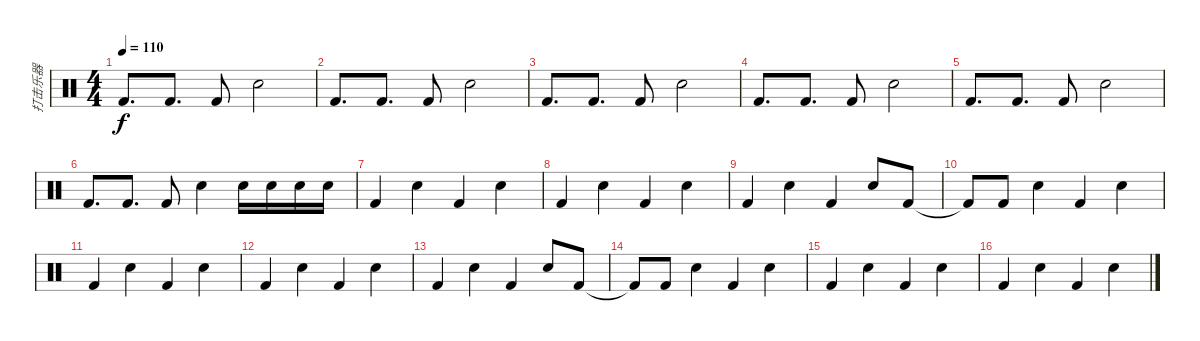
\track ("打击乐器" "打击乐器") {instrument percussion}
\staff {score}
\articulation defaults
\ts (4 4)
\tempo 110
\clef neutral
\ks c "Kick (hit) 2".8{d dy f} "Kick (hit) 2".8{d} "Kick (hit) 2".8 "Snare (hit) 2".2
|
"Kick (hit) 2".8{d} "Kick (hit) 2".8{d} "Kick (hit) 2".8 "Snare (hit) 2".2 |
"Kick (hit) 2".8{d} "Kick (hit) 2".8{d} "Kick (hit) 2".8 "Snare (hit) 2".2 |
"Kick (hit) 2".8{d} "Kick (hit) 2".8{d} "Kick (hit) 2".8 "Snare (hit) 2".2 |
"Kick (hit) 2".8{d} "Kick (hit) 2".8{d} "Kick (hit) 2".8 "Snare (hit) 2".2 |
"Kick (hit) 2".8{d} "Kick (hit) 2".8{d} "Kick (hit) 2".8 "Snare (hit) 2".4 "Snare (hit) 2".16 "Snare (hit) 2".16 "Snare (hit) 2".16 "Snare (hit) 2".16 |
"Kick (hit) 2".4 "Snare (hit) 2".4 "Kick (hit) 2".4 "Snare (hit) 2".4 |
"Kick (hit) 2".4 "Snare (hit) 2".4 "Kick (hit) 2".4 "Snare (hit) 2".4 |
"Kick (hit) 2".4 "Snare (hit) 2".4 "Kick (hit) 2".4 "Snare (hit) 2".8 "Kick (hit) 2".8 |
"Kick (hit) 2"{t}.8 "Kick (hit) 2".8 "Snare (hit) 2".4 "Kick (hit) 2".4 "Snare (hit) 2".4 |
"Kick (hit) 2".4 "Snare (hit) 2".4 "Kick (hit) 2".4 "Snare (hit) 2".4 |
"Kick (hit) 2".4 "Snare (hit) 2".4 "Kick (hit) 2".4 "Snare (hit) 2".4 |
"Kick (hit) 2".4 "Snare (hit) 2".4 "Kick (hit) 2".4 "Snare (hit) 2".8 "Kick (hit) 2".8 |
"Kick (hit) 2"{t}.8 "Kick (hit) 2".8 "Snare (hit) 2".4 "Kick (hit) 2".4 "Snare (hit) 2".4 |
"Kick (hit) 2".4 "Snare (hit) 2".4 "Kick (hit) 2".4 "Snare (hit) 2".4 |
"Kick (hit) 2".4 "Snare (hit) 2".4 "Kick (hit) 2".4 "Snare (hit) 2".4
